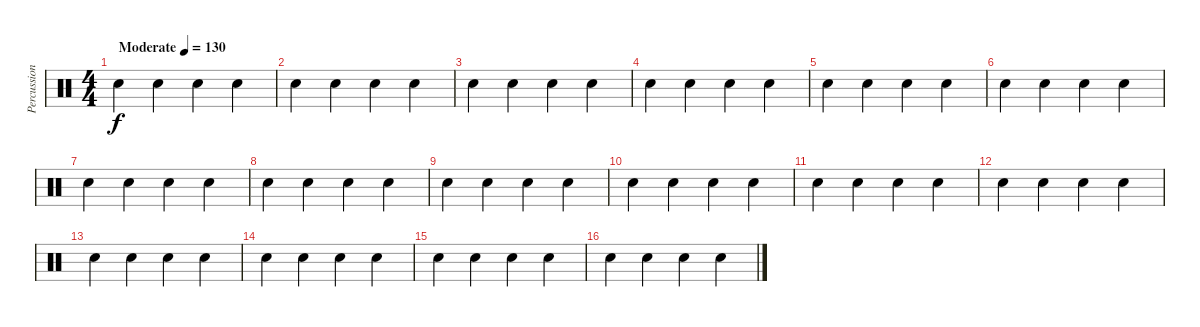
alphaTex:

\track ("Percussions" "Percussion") {instrument percussion}
\staff {score}
\articulation defaults
\ts (4 4)
\tempo (130 "Moderate")
\clef neutral
\ks c "Hand Clap (hit)".4{dy f volume 12} "Hand Clap (hit)".4 "Hand Clap (hit)".4 "Hand Clap (hit)".4
|
"Hand Clap (hit)".4 "Hand Clap (hit)".4 "Hand Clap (hit)".4 "Hand Clap (hit)".4 |
"Hand Clap (hit)".4 "Hand Clap (hit)".4 "Hand Clap (hit)".4 "Hand Clap (hit)".4 |
"Hand Clap (hit)".4 "Hand Clap (hit)".4 "Hand Clap (hit)".4 "Hand Clap (hit)".4 |
"Hand Clap (hit)".4 "Hand Clap (hit)".4 "Hand Clap (hit)".4 "Hand Clap (hit)".4 |
"Hand Clap (hit)".4 "Hand Clap (hit)".4 "Hand Clap (hit)".4 "Hand Clap (hit)".4 |
"Hand Clap (hit)".4 "Hand Clap (hit)".4 "Hand Clap (hit)".4 "Hand Clap (hit)".4 |
"Hand Clap (hit)".4 "Hand Clap (hit)".4 "Hand Clap (hit)".4 "Hand Clap (hit)".4 |
"Hand Clap (hit)".4 "Hand Clap (hit)".4 "Hand Clap (hit)".4 "Hand Clap (hit)".4 |
"Hand Clap (hit)".4 "Hand Clap (hit)".4 "Hand Clap (hit)".4 "Hand Clap (hit)".4 |
"Hand Clap (hit)".4 "Hand Clap (hit)".4 "Hand Clap (hit)".4 "Hand Clap (hit)".4 |
"Hand Clap (hit)".4 "Hand Clap (hit)".4 "Hand Clap (hit)".4 "Hand Clap (hit)".4 |
"Hand Clap (hit)".4 "Hand Clap (hit)".4 "Hand Clap (hit)".4 "Hand Clap (hit)".4 |
"Hand Clap (hit)".4 "Hand Clap (hit)".4 "Hand Clap (hit)".4 "Hand Clap (hit)".4 |
"Hand Clap (hit)".4 "Hand Clap (hit)".4 "Hand Clap (hit)".4 "Hand Clap (hit)".4 |
"Hand Clap (hit)".4 "Hand Clap (hit)".4 "Hand Clap (hit)".4 "Hand Clap (hit)".4
